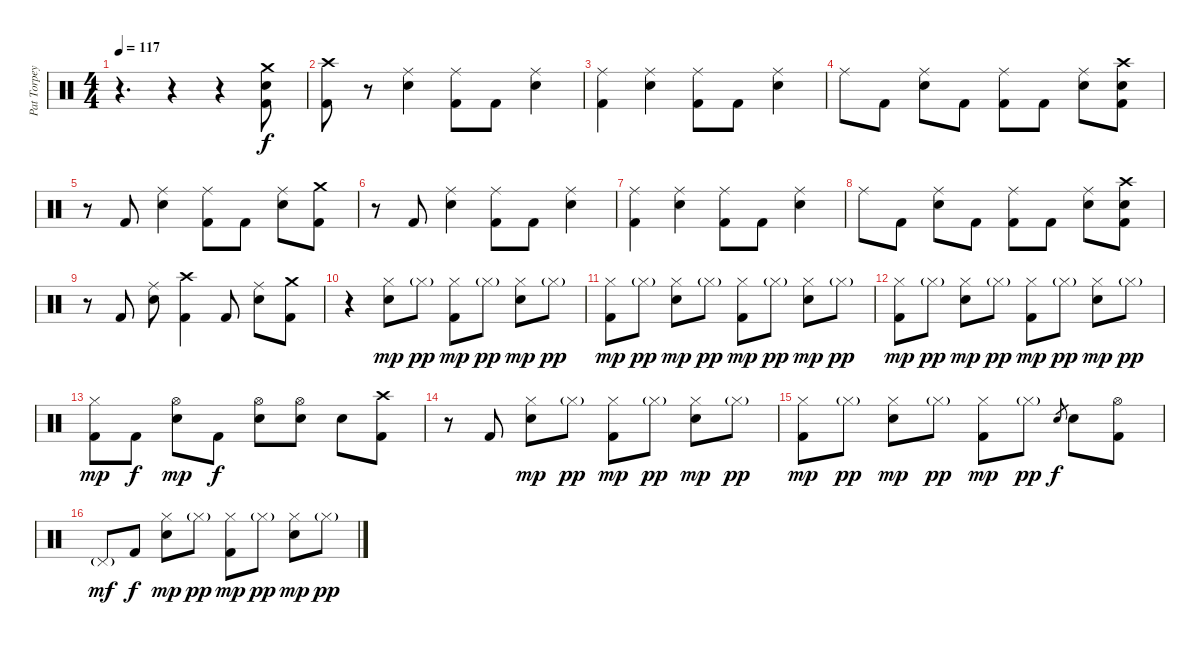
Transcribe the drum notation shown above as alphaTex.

\track ("Pat Torpey" "Pat Torpey") {instrument percussion}
\staff {score}
\articulation defaults
\ts (4 4)
\tempo 117
\clef neutral
\ks c
r.4{d dy f} r.4 r.4 ("Crash medium (hit)" "Electric Snare (hit)" "Kick (hit) 2").8 |
("Crash high (hit)" "Kick (hit) 2").8 r.8 ("Ride (middle)" "Electric Snare (hit)").4 ("Ride (middle)" "Kick (hit) 2").8 "Kick (hit) 2".8 ("Ride (middle)" "Electric Snare (hit)").4 |
("Ride (middle)" "Kick (hit) 2").4 ("Ride (middle)" "Electric Snare (hit)").4 ("Ride (middle)" "Kick (hit) 2").8 "Kick (hit) 2".8 ("Ride (middle)" "Electric Snare (hit)").4 |
"Ride (middle)".8 "Kick (hit) 2".8 ("Ride (middle)" "Electric Snare (hit)").8 "Kick (hit) 2".8 ("Ride (middle)" "Kick (hit) 2").8 "Kick (hit) 2".8 ("Ride (middle)" "Electric Snare (hit)").8 ("Crash high (hit)" "Electric Snare (hit)" "Kick (hit) 2").8 |
r.8 "Kick (hit) 2".8 ("Ride (middle)" "Electric Snare (hit)").4 ("Ride (middle)" "Kick (hit) 2").8 "Kick (hit) 2".8 ("Ride (middle)" "Electric Snare (hit)").8 ("Crash medium (hit)" "Kick (hit) 2").8 |
r.8 "Kick (hit) 2".8 ("Ride (middle)" "Electric Snare (hit)").4 ("Ride (middle)" "Kick (hit) 2").8 "Kick (hit) 2".8 ("Ride (middle)" "Electric Snare (hit)").4 |
("Ride (middle)" "Kick (hit) 2").4 ("Ride (middle)" "Electric Snare (hit)").4 ("Ride (middle)" "Kick (hit) 2").8 "Kick (hit) 2".8 ("Ride (middle)" "Electric Snare (hit)").4 |
"Ride (middle)".8 "Kick (hit) 2".8 ("Ride (middle)" "Electric Snare (hit)").8 "Kick (hit) 2".8 ("Ride (middle)" "Kick (hit) 2").8 "Kick (hit) 2".8 ("Ride (middle)" "Electric Snare (hit)").8 ("Crash high (hit)" "Electric Snare (hit)" "Kick (hit) 2").8 |
r.8 "Kick (hit) 2".8 ("Ride (middle)" "Electric Snare (hit)").8 ("Crash high (hit)" "Kick (hit) 2").4 "Kick (hit) 2".8 ("Ride (middle)" "Electric Snare (hit)").8 ("Crash medium (hit)" "Kick (hit) 2").8 |
r.4 ("Hi-Hat (closed)" "Electric Snare (hit)").8{dy mp} "Hi-Hat (closed)"{g}.8{dy pp} ("Hi-Hat (closed)" "Kick (hit) 2").8{dy mp} "Hi-Hat (closed)"{g}.8{dy pp} ("Hi-Hat (closed)" "Electric Snare (hit)").8{dy mp} "Hi-Hat (closed)"{g}.8{dy pp} |
("Hi-Hat (closed)" "Kick (hit) 2").8{dy mp} "Hi-Hat (closed)"{g}.8{dy pp} ("Hi-Hat (closed)" "Electric Snare (hit)").8{dy mp} "Hi-Hat (closed)"{g}.8{dy pp} ("Hi-Hat (closed)" "Kick (hit) 2").8{dy mp} "Hi-Hat (closed)"{g}.8{dy pp} ("Hi-Hat (closed)" "Electric Snare (hit)").8{dy mp} "Hi-Hat (closed)"{g}.8{dy pp} |
("Hi-Hat (closed)" "Kick (hit) 2").8{dy mp} "Hi-Hat (closed)"{g}.8{dy pp} ("Hi-Hat (closed)" "Electric Snare (hit)").8{dy mp} "Hi-Hat (closed)"{g}.8{dy pp} ("Hi-Hat (closed)" "Kick (hit) 2").8{dy mp} "Hi-Hat (closed)"{g}.8{dy pp} ("Hi-Hat (closed)" "Electric Snare (hit)").8{dy mp} "Hi-Hat (closed)"{g}.8{dy pp} |
("Hi-Hat (closed)" "Kick (hit) 2").8{dy mp} "Kick (hit) 2".8{dy f} ("Hi-Hat (open)" "Electric Snare (hit)").8{dy mp} "Kick (hit) 2".8{dy f} ("Hi-Hat (open)" "Electric Snare (hit)").8 ("Hi-Hat (open)" "Electric Snare (hit)").8 "Electric Snare (hit)".8 ("Crash high (hit)" "Kick (hit) 2").8 |
r.8 "Kick (hit) 2".8 ("Hi-Hat (closed)" "Electric Snare (hit)").8{dy mp} "Hi-Hat (closed)"{g}.8{dy pp} ("Hi-Hat (closed)" "Kick (hit) 2").8{dy mp} "Hi-Hat (closed)"{g}.8{dy pp} ("Hi-Hat (closed)" "Electric Snare (hit)").8{dy mp} "Hi-Hat (closed)"{g}.8{dy pp} |
("Hi-Hat (closed)" "Kick (hit) 2").8{dy mp} "Hi-Hat (closed)"{g}.8{dy pp} ("Hi-Hat (closed)" "Electric Snare (hit)").8{dy mp} "Hi-Hat (closed)"{g}.8{dy pp} ("Hi-Hat (closed)" "Kick (hit) 2").8{dy mp} "Hi-Hat (closed)"{g}.8{dy pp} "Electric Snare (hit)"{h}.8{gr dy f} "Electric Snare (hit)".8 ("Hi-Hat (open)" "Kick (hit) 2").8 |
"Pedal Hi-Hat (hit)"{g}.8{dy mf} "Kick (hit) 2".8{dy f} ("Hi-Hat (closed)" "Electric Snare (hit)").8{dy mp} "Hi-Hat (closed)"{g}.8{dy pp} ("Hi-Hat (closed)" "Kick (hit) 2").8{dy mp} "Hi-Hat (closed)"{g}.8{dy pp} ("Hi-Hat (closed)" "Electric Snare (hit)").8{dy mp} "Hi-Hat (closed)"{g}.8{dy pp}
